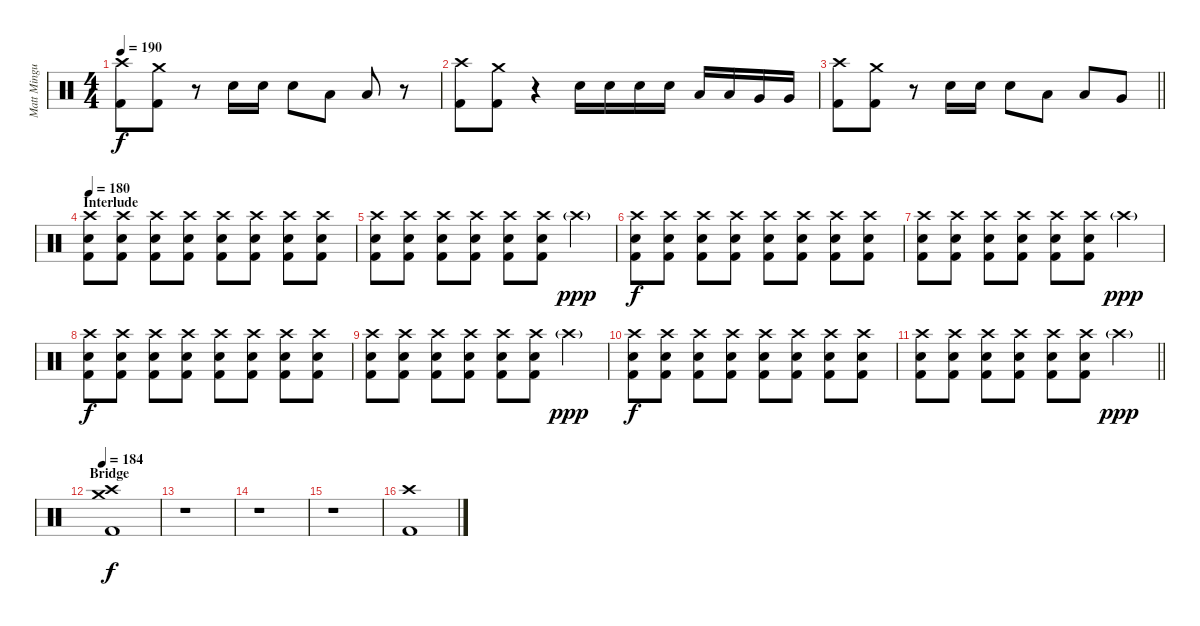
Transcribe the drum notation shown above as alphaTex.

\track ("Matt Mingus (Drums)" "Matt Mingu") {instrument percussion}
\staff {score}
\articulation defaults
\ts (4 4)
\tempo 190
\clef neutral
\ks c
("Crash high (hit)" "Kick (hit) 2").8{dy f} ("Crash medium (hit)" "Kick (hit) 2").8 r.8 "Electric Snare (hit)".16 "Electric Snare (hit)".16 "Electric Snare (hit)".8 "Low Tom (hit)".8 "Low Tom (hit)".8 r.8 |
("Crash high (hit)" "Kick (hit) 2").8 ("Crash medium (hit)" "Kick (hit) 2").8 r.4 "Electric Snare (hit)".16 "Electric Snare (hit)".16 "Electric Snare (hit)".16 "Electric Snare (hit)".16 "Low Tom (hit)".16 "Low Tom (hit)".16 "Very Low Tom (hit)".16 "Very Low Tom (hit)".16 |
\barLineRight lightlight
("Crash high (hit)" "Kick (hit) 2").8 ("Crash medium (hit)" "Kick (hit) 2").8 r.8 "Electric Snare (hit)".16 "Electric Snare (hit)".16 "Electric Snare (hit)".8 "Low Tom (hit)".8 "Low Tom (hit)".8 "Very Low Tom (hit)".8 |
\section ("" "Interlude")
\tempo 180
("Crash high (hit)" "Electric Snare (hit)" "Kick (hit) 2").8 ("Crash high (hit)" "Electric Snare (hit)" "Kick (hit) 2").8 ("Crash high (hit)" "Electric Snare (hit)" "Kick (hit) 2").8 ("Crash high (hit)" "Electric Snare (hit)" "Kick (hit) 2").8 ("Crash high (hit)" "Electric Snare (hit)" "Kick (hit) 2").8 ("Crash high (hit)" "Electric Snare (hit)" "Kick (hit) 2").8 ("Crash high (hit)" "Electric Snare (hit)" "Kick (hit) 2").8 ("Crash high (hit)" "Electric Snare (hit)" "Kick (hit) 2").8 |
("Crash high (hit)" "Electric Snare (hit)" "Kick (hit) 2").8 ("Crash high (hit)" "Electric Snare (hit)" "Kick (hit) 2").8 ("Crash high (hit)" "Electric Snare (hit)" "Kick (hit) 2").8 ("Crash high (hit)" "Electric Snare (hit)" "Kick (hit) 2").8 ("Crash high (hit)" "Electric Snare (hit)" "Kick (hit) 2").8 ("Crash high (hit)" "Electric Snare (hit)" "Kick (hit) 2").8 "Crash high (hit)"{g}.4{dy ppp} |
("Crash high (hit)" "Electric Snare (hit)" "Kick (hit) 2").8{dy f} ("Crash high (hit)" "Electric Snare (hit)" "Kick (hit) 2").8 ("Crash high (hit)" "Electric Snare (hit)" "Kick (hit) 2").8 ("Crash high (hit)" "Electric Snare (hit)" "Kick (hit) 2").8 ("Crash high (hit)" "Electric Snare (hit)" "Kick (hit) 2").8 ("Crash high (hit)" "Electric Snare (hit)" "Kick (hit) 2").8 ("Crash high (hit)" "Electric Snare (hit)" "Kick (hit) 2").8 ("Crash high (hit)" "Electric Snare (hit)" "Kick (hit) 2").8 |
("Crash high (hit)" "Electric Snare (hit)" "Kick (hit) 2").8 ("Crash high (hit)" "Electric Snare (hit)" "Kick (hit) 2").8 ("Crash high (hit)" "Electric Snare (hit)" "Kick (hit) 2").8 ("Crash high (hit)" "Electric Snare (hit)" "Kick (hit) 2").8 ("Crash high (hit)" "Electric Snare (hit)" "Kick (hit) 2").8 ("Crash high (hit)" "Electric Snare (hit)" "Kick (hit) 2").8 "Crash high (hit)"{g}.4{dy ppp} |
("Crash high (hit)" "Electric Snare (hit)" "Kick (hit) 2").8{dy f} ("Crash high (hit)" "Electric Snare (hit)" "Kick (hit) 2").8 ("Crash high (hit)" "Electric Snare (hit)" "Kick (hit) 2").8 ("Crash high (hit)" "Electric Snare (hit)" "Kick (hit) 2").8 ("Crash high (hit)" "Electric Snare (hit)" "Kick (hit) 2").8 ("Crash high (hit)" "Electric Snare (hit)" "Kick (hit) 2").8 ("Crash high (hit)" "Electric Snare (hit)" "Kick (hit) 2").8 ("Crash high (hit)" "Electric Snare (hit)" "Kick (hit) 2").8 |
("Crash high (hit)" "Electric Snare (hit)" "Kick (hit) 2").8 ("Crash high (hit)" "Electric Snare (hit)" "Kick (hit) 2").8 ("Crash high (hit)" "Electric Snare (hit)" "Kick (hit) 2").8 ("Crash high (hit)" "Electric Snare (hit)" "Kick (hit) 2").8 ("Crash high (hit)" "Electric Snare (hit)" "Kick (hit) 2").8 ("Crash high (hit)" "Electric Snare (hit)" "Kick (hit) 2").8 "Crash high (hit)"{g}.4{dy ppp} |
("Crash high (hit)" "Electric Snare (hit)" "Kick (hit) 2").8{dy f} ("Crash high (hit)" "Electric Snare (hit)" "Kick (hit) 2").8 ("Crash high (hit)" "Electric Snare (hit)" "Kick (hit) 2").8 ("Crash high (hit)" "Electric Snare (hit)" "Kick (hit) 2").8 ("Crash high (hit)" "Electric Snare (hit)" "Kick (hit) 2").8 ("Crash high (hit)" "Electric Snare (hit)" "Kick (hit) 2").8 ("Crash high (hit)" "Electric Snare (hit)" "Kick (hit) 2").8 ("Crash high (hit)" "Electric Snare (hit)" "Kick (hit) 2").8 |
\barLineRight lightlight
("Crash high (hit)" "Electric Snare (hit)" "Kick (hit) 2").8 ("Crash high (hit)" "Electric Snare (hit)" "Kick (hit) 2").8 ("Crash high (hit)" "Electric Snare (hit)" "Kick (hit) 2").8 ("Crash high (hit)" "Electric Snare (hit)" "Kick (hit) 2").8 ("Crash high (hit)" "Electric Snare (hit)" "Kick (hit) 2").8 ("Crash high (hit)" "Electric Snare (hit)" "Kick (hit) 2").8 "Crash high (hit)"{g}.4{dy ppp} |
\section ("" "Bridge")
\tempo 184
("Crash medium (hit)" "Crash high (hit)" "Kick (hit) 2").1{dy f} |
r.1 |
r.1 |
r.1 |
("Crash high (hit)" "Kick (hit) 2").1
